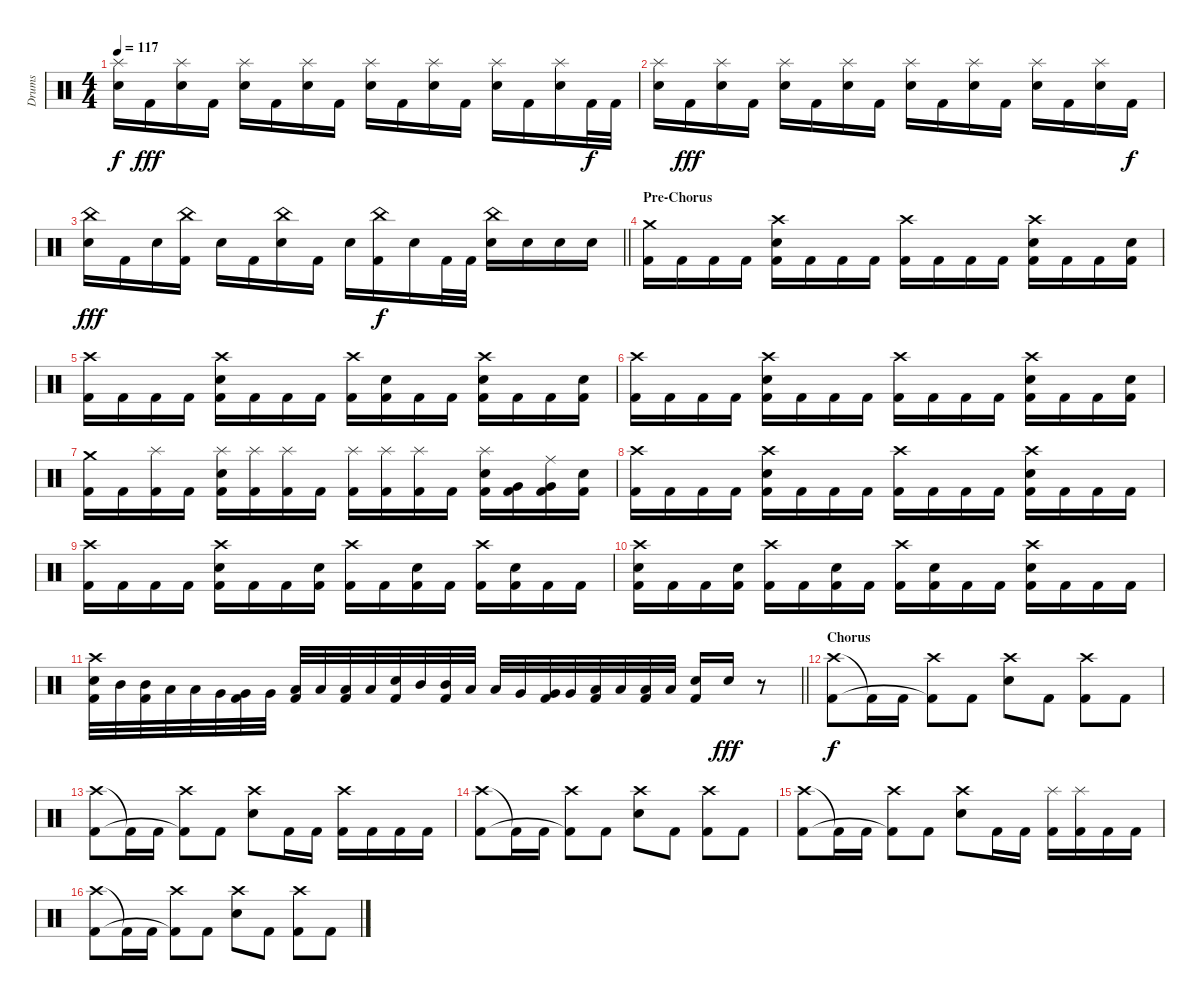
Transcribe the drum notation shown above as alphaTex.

\track ("Drums" "Drums") {instrument percussion}
\staff {score}
\articulation defaults
\ts (4 4)
\tempo 117
\clef neutral
\ks c
("Splash (hit)" "Electric Snare (hit)").16{dy f} "Kick (hit) 2".16{dy fff} ("Splash (hit)" "Electric Snare (hit)").16 "Kick (hit) 2".16 ("Splash (hit)" "Electric Snare (hit)").16 "Kick (hit) 2".16 ("Splash (hit)" "Electric Snare (hit)").16 "Kick (hit) 2".16 ("Splash (hit)" "Electric Snare (hit)").16 "Kick (hit) 2".16 ("Splash (hit)" "Electric Snare (hit)").16 "Kick (hit) 2".16 ("Splash (hit)" "Electric Snare (hit)").16 "Kick (hit) 2".16 ("Splash (hit)" "Electric Snare (hit)").16 "Kick (hit) 2".32{dy f} "Kick (hit) 2".32 |
("Splash (hit)" "Electric Snare (hit)").16 "Kick (hit) 2".16{dy fff} ("Splash (hit)" "Electric Snare (hit)").16 "Kick (hit) 2".16 ("Splash (hit)" "Electric Snare (hit)").16 "Kick (hit) 2".16 ("Splash (hit)" "Electric Snare (hit)").16 "Kick (hit) 2".16 ("Splash (hit)" "Electric Snare (hit)").16 "Kick (hit) 2".16 ("Splash (hit)" "Electric Snare (hit)").16 "Kick (hit) 2".16 ("Splash (hit)" "Electric Snare (hit)").16 "Kick (hit) 2".16 ("Splash (hit)" "Electric Snare (hit)").16 "Kick (hit) 2".16{dy f} |
\barLineRight lightlight
("China (hit)" "Electric Snare (hit)").16{dy fff} "Kick (hit) 2".16 "Electric Snare (hit)".16 ("China (hit)" "Kick (hit) 2").16 "Electric Snare (hit)".16 "Kick (hit) 2".16 ("China (hit)" "Electric Snare (hit)").16 "Kick (hit) 2".16 "Electric Snare (hit)".16 ("China (hit)" "Kick (hit) 2").16{dy f} "Electric Snare (hit)".16 "Kick (hit) 2".32 "Kick (hit) 2".32 ("China (hit)" "Electric Snare (hit)").16 "Electric Snare (hit)".16 "Electric Snare (hit)".16 "Electric Snare (hit)".16 |
\section ("" "Pre-Chorus")
("Crash medium (hit)" "Kick (hit) 2").16 "Kick (hit) 2".16 "Kick (hit) 2".16 "Kick (hit) 2".16 ("Crash high (hit)" "Electric Snare (hit)" "Kick (hit) 2").16 "Kick (hit) 2".16 "Kick (hit) 2".16 "Kick (hit) 2".16 ("Crash high (hit)" "Kick (hit) 2").16 "Kick (hit) 2".16 "Kick (hit) 2".16 "Kick (hit) 2".16 ("Crash high (hit)" "Electric Snare (hit)" "Kick (hit) 2").16 "Kick (hit) 2".16 "Kick (hit) 2".16 ("Electric Snare (hit)" "Kick (hit) 2").16 |
("Crash high (hit)" "Kick (hit) 2").16 "Kick (hit) 2".16 "Kick (hit) 2".16 "Kick (hit) 2".16 ("Crash high (hit)" "Electric Snare (hit)" "Kick (hit) 2").16 "Kick (hit) 2".16 "Kick (hit) 2".16 "Kick (hit) 2".16 ("Crash high (hit)" "Kick (hit) 2").16 ("Electric Snare (hit)" "Kick (hit) 2").16 "Kick (hit) 2".16 "Kick (hit) 2".16 ("Crash high (hit)" "Electric Snare (hit)" "Kick (hit) 2").16 "Kick (hit) 2".16 "Kick (hit) 2".16 ("Electric Snare (hit)" "Kick (hit) 2").16 |
("Crash high (hit)" "Kick (hit) 2").16 "Kick (hit) 2".16 "Kick (hit) 2".16 "Kick (hit) 2".16 ("Crash high (hit)" "Electric Snare (hit)" "Kick (hit) 2").16 "Kick (hit) 2".16 "Kick (hit) 2".16 "Kick (hit) 2".16 ("Crash high (hit)" "Kick (hit) 2").16 "Kick (hit) 2".16 "Kick (hit) 2".16 "Kick (hit) 2".16 ("Crash high (hit)" "Electric Snare (hit)" "Kick (hit) 2").16 "Kick (hit) 2".16 "Kick (hit) 2".16 ("Electric Snare (hit)" "Kick (hit) 2").16 |
("Crash medium (hit)" "Kick (hit) 2").16 "Kick (hit) 2".16 ("Splash (hit)" "Kick (hit) 2").16 "Kick (hit) 2".16 ("Splash (hit)" "Electric Snare (hit)" "Kick (hit) 2").16 ("Splash (hit)" "Kick (hit) 2").16 ("Splash (hit)" "Kick (hit) 2").16 "Kick (hit) 2".16 ("Splash (hit)" "Kick (hit) 2").16 ("Splash (hit)" "Kick (hit) 2").16 ("Splash (hit)" "Kick (hit) 2").16 "Kick (hit) 2".16 ("Splash (hit)" "Electric Snare (hit)" "Kick (hit) 2").16 ("Very Low Tom (hit)" "Kick (hit) 2").16 ("Ride (middle)" "Very Low Tom (hit)" "Kick (hit) 2").16 ("Electric Snare (hit)" "Kick (hit) 2").16 |
("Crash high (hit)" "Kick (hit) 2").16 "Kick (hit) 2".16 "Kick (hit) 2".16 "Kick (hit) 2".16 ("Crash high (hit)" "Electric Snare (hit)" "Kick (hit) 2").16 "Kick (hit) 2".16 "Kick (hit) 2".16 "Kick (hit) 2".16 ("Crash high (hit)" "Kick (hit) 2").16 "Kick (hit) 2".16 "Kick (hit) 2".16 "Kick (hit) 2".16 ("Crash high (hit)" "Electric Snare (hit)" "Kick (hit) 2").16 "Kick (hit) 2".16 "Kick (hit) 2".16 "Kick (hit) 2".16 |
("Crash high (hit)" "Kick (hit) 2").16 "Kick (hit) 2".16 "Kick (hit) 2".16 "Kick (hit) 2".16 ("Crash high (hit)" "Electric Snare (hit)" "Kick (hit) 2").16 "Kick (hit) 2".16 "Kick (hit) 2".16 ("Electric Snare (hit)" "Kick (hit) 2").16 ("Crash high (hit)" "Kick (hit) 2").16 "Kick (hit) 2".16 ("Electric Snare (hit)" "Kick (hit) 2").16 "Kick (hit) 2".16 ("Crash high (hit)" "Kick (hit) 2").16 ("Electric Snare (hit)" "Kick (hit) 2").16 "Kick (hit) 2".16 "Kick (hit) 2".16 |
("Crash high (hit)" "Electric Snare (hit)" "Kick (hit) 2").16 "Kick (hit) 2".16 "Kick (hit) 2".16 ("Electric Snare (hit)" "Kick (hit) 2").16 ("Crash high (hit)" "Kick (hit) 2").16 "Kick (hit) 2".16 ("Electric Snare (hit)" "Kick (hit) 2").16 "Kick (hit) 2".16 ("Crash high (hit)" "Kick (hit) 2").16 ("Electric Snare (hit)" "Kick (hit) 2").16 "Kick (hit) 2".16 "Kick (hit) 2".16 ("Crash high (hit)" "Electric Snare (hit)" "Kick (hit) 2").16 "Kick (hit) 2".16 "Kick (hit) 2".16 "Kick (hit) 2".16 |
\barLineRight lightlight
("Crash high (hit)" "Electric Snare (hit)" "Kick (hit) 2").32 "Mid Tom (hit)".32 ("Mid Tom (hit)" "Kick (hit) 2").32 "Low Tom (hit)".32 "Low Tom (hit)".32 "Very Low Tom (hit)".32 ("Very Low Tom (hit)" "Kick (hit) 2").32 "Very Low Tom (hit)".32 ("Low Floor Tom (hit)" "Kick (hit) 2").32 "Low Floor Tom (hit)".32 ("Low Floor Tom (hit)" "Kick (hit) 2").32 "Low Floor Tom (hit)".32 ("Electric Snare (hit)" "Kick (hit) 2").32 "Mid Tom (hit)".32 ("Mid Tom (hit)" "Kick (hit) 2").32 "Low Tom (hit)".32 "Low Tom (hit)".32 "Very Low Tom (hit)".32 ("Very Low Tom (hit)" "Kick (hit) 2").32 "Very Low Tom (hit)".32 ("Low Floor Tom (hit)" "Kick (hit) 2").32 "Low Floor Tom (hit)".32 ("Low Floor Tom (hit)" "Kick (hit) 2").32 "Low Floor Tom (hit)".32 ("Electric Snare (hit)" "Kick (hit) 2").16 "Electric Snare (hit)".16{dy fff} r.8 |
\section ("" "Chorus")
("Crash high (hit)" "Kick (hit) 2").8{dy f} "Kick (hit) 2"{t}.16 "Kick (hit) 2".16 ("Crash high (hit)" "Kick (hit) 2"{t}).8 "Kick (hit) 2".8 ("Crash high (hit)" "Electric Snare (hit)").8 "Kick (hit) 2".8 ("Crash high (hit)" "Kick (hit) 2").8 "Kick (hit) 2".8 |
("Crash high (hit)" "Kick (hit) 2").8 "Kick (hit) 2"{t}.16 "Kick (hit) 2".16 ("Crash high (hit)" "Kick (hit) 2"{t}).8 "Kick (hit) 2".8 ("Crash high (hit)" "Electric Snare (hit)").8 "Kick (hit) 2".16 "Kick (hit) 2".16 ("Crash high (hit)" "Kick (hit) 2").16 "Kick (hit) 2".16 "Kick (hit) 2".16 "Kick (hit) 2".16 |
("Crash high (hit)" "Kick (hit) 2").8 "Kick (hit) 2"{t}.16 "Kick (hit) 2".16 ("Crash high (hit)" "Kick (hit) 2"{t}).8 "Kick (hit) 2".8 ("Crash high (hit)" "Electric Snare (hit)").8 "Kick (hit) 2".8 ("Crash high (hit)" "Kick (hit) 2").8 "Kick (hit) 2".8 |
("Crash high (hit)" "Kick (hit) 2").8 "Kick (hit) 2"{t}.16 "Kick (hit) 2".16 ("Crash high (hit)" "Kick (hit) 2"{t}).8 "Kick (hit) 2".8 ("Crash high (hit)" "Electric Snare (hit)").8 "Kick (hit) 2".16 "Kick (hit) 2".16 ("Splash (hit)" "Kick (hit) 2").16 ("Splash (hit)" "Kick (hit) 2").16 "Kick (hit) 2".16 "Kick (hit) 2".16 |
("Crash high (hit)" "Kick (hit) 2").8 "Kick (hit) 2"{t}.16 "Kick (hit) 2".16 ("Crash high (hit)" "Kick (hit) 2"{t}).8 "Kick (hit) 2".8 ("Crash high (hit)" "Electric Snare (hit)").8 "Kick (hit) 2".8 ("Crash high (hit)" "Kick (hit) 2").8 "Kick (hit) 2".8
